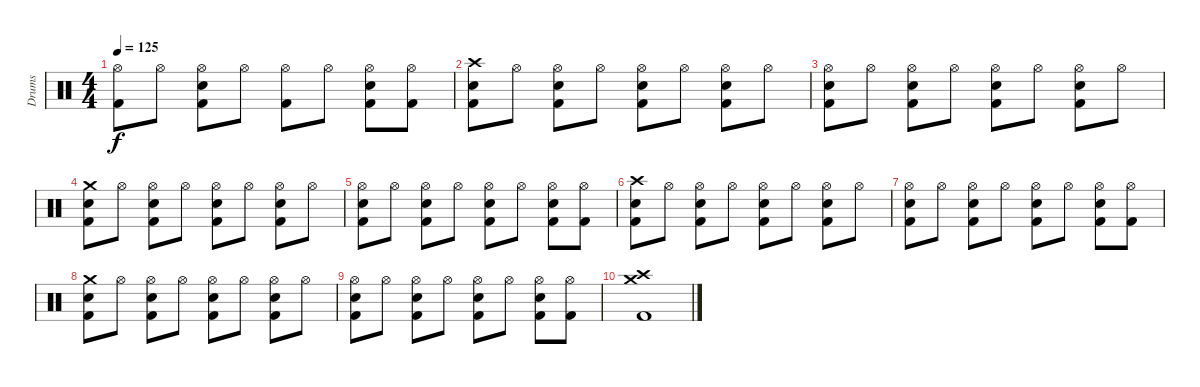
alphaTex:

\track ("Drums" "Drums") {instrument percussion}
\staff {score}
\articulation defaults
\ts (4 4)
\tempo 125
\clef neutral
\ks c
("Hi-Hat (open)" "Kick (hit) 2").8{dy f} "Hi-Hat (open)".8 ("Hi-Hat (open)" "Electric Snare (hit)" "Kick (hit) 2").8 "Hi-Hat (open)".8 ("Hi-Hat (open)" "Kick (hit) 2").8 "Hi-Hat (open)".8 ("Hi-Hat (open)" "Electric Snare (hit)" "Kick (hit) 2").8 ("Hi-Hat (open)" "Kick (hit) 2").8 |
("Crash high (hit)" "Electric Snare (hit)" "Kick (hit) 2").8 "Hi-Hat (open)".8 ("Hi-Hat (open)" "Electric Snare (hit)" "Kick (hit) 2").8 "Hi-Hat (open)".8 ("Hi-Hat (open)" "Electric Snare (hit)" "Kick (hit) 2").8 "Hi-Hat (open)".8 ("Hi-Hat (open)" "Electric Snare (hit)" "Kick (hit) 2").8 "Hi-Hat (open)".8 |
("Hi-Hat (open)" "Electric Snare (hit)" "Kick (hit) 2").8 "Hi-Hat (open)".8 ("Hi-Hat (open)" "Electric Snare (hit)" "Kick (hit) 2").8 "Hi-Hat (open)".8 ("Hi-Hat (open)" "Electric Snare (hit)" "Kick (hit) 2").8 "Hi-Hat (open)".8 ("Hi-Hat (open)" "Electric Snare (hit)" "Kick (hit) 2").8 "Hi-Hat (open)".8 |
("Crash medium (hit)" "Electric Snare (hit)" "Kick (hit) 2").8 "Hi-Hat (open)".8 ("Hi-Hat (open)" "Electric Snare (hit)" "Kick (hit) 2").8 "Hi-Hat (open)".8 ("Hi-Hat (open)" "Electric Snare (hit)" "Kick (hit) 2").8 "Hi-Hat (open)".8 ("Hi-Hat (open)" "Electric Snare (hit)" "Kick (hit) 2").8 "Hi-Hat (open)".8 |
("Hi-Hat (open)" "Electric Snare (hit)" "Kick (hit) 2").8 "Hi-Hat (open)".8 ("Hi-Hat (open)" "Electric Snare (hit)" "Kick (hit) 2").8 "Hi-Hat (open)".8 ("Hi-Hat (open)" "Electric Snare (hit)" "Kick (hit) 2").8 "Hi-Hat (open)".8 ("Hi-Hat (open)" "Electric Snare (hit)" "Kick (hit) 2").8 ("Hi-Hat (open)" "Kick (hit) 2").8 |
("Crash high (hit)" "Electric Snare (hit)" "Kick (hit) 2").8 "Hi-Hat (open)".8 ("Hi-Hat (open)" "Electric Snare (hit)" "Kick (hit) 2").8 "Hi-Hat (open)".8 ("Hi-Hat (open)" "Electric Snare (hit)" "Kick (hit) 2").8 "Hi-Hat (open)".8 ("Hi-Hat (open)" "Electric Snare (hit)" "Kick (hit) 2").8 "Hi-Hat (open)".8 |
("Hi-Hat (open)" "Electric Snare (hit)" "Kick (hit) 2").8 "Hi-Hat (open)".8 ("Hi-Hat (open)" "Electric Snare (hit)" "Kick (hit) 2").8 "Hi-Hat (open)".8 ("Hi-Hat (open)" "Electric Snare (hit)" "Kick (hit) 2").8 "Hi-Hat (open)".8 ("Hi-Hat (open)" "Electric Snare (hit)" "Kick (hit) 2").8 ("Hi-Hat (open)" "Kick (hit) 2").8 |
("Crash medium (hit)" "Electric Snare (hit)" "Kick (hit) 2").8 "Hi-Hat (open)".8 ("Hi-Hat (open)" "Electric Snare (hit)" "Kick (hit) 2").8 "Hi-Hat (open)".8 ("Hi-Hat (open)" "Electric Snare (hit)" "Kick (hit) 2").8 "Hi-Hat (open)".8 ("Hi-Hat (open)" "Electric Snare (hit)" "Kick (hit) 2").8 "Hi-Hat (open)".8 |
("Hi-Hat (open)" "Electric Snare (hit)" "Kick (hit) 2").8 "Hi-Hat (open)".8 ("Hi-Hat (open)" "Electric Snare (hit)" "Kick (hit) 2").8 "Hi-Hat (open)".8 ("Hi-Hat (open)" "Electric Snare (hit)" "Kick (hit) 2").8 "Hi-Hat (open)".8 ("Hi-Hat (open)" "Electric Snare (hit)" "Kick (hit) 2").8 ("Hi-Hat (open)" "Kick (hit) 2").8 |
("Crash medium (hit)" "Crash high (hit)" "Kick (hit) 2").1
